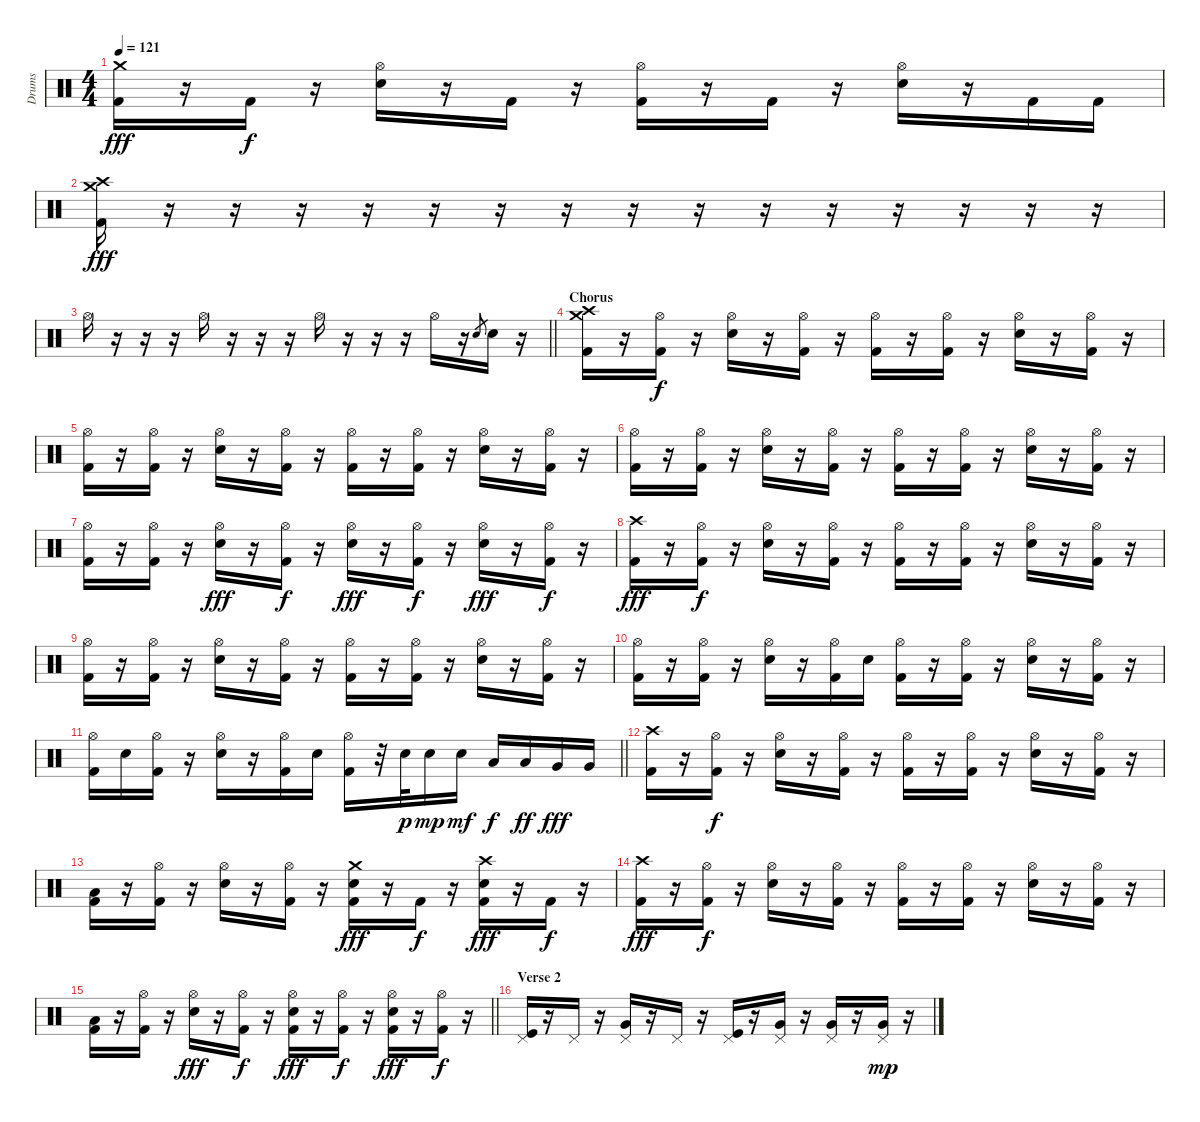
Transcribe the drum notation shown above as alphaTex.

\track ("Drums" "Drums") {instrument percussion}
\staff {score}
\articulation defaults
\ts (4 4)
\tempo 121
\clef neutral
\ks c
("Crash medium (hit)" "Kick (hit) 2").16{dy fff} r.16 "Kick (hit) 2".16{dy f} r.16 ("Hi-Hat (open)" "Electric Snare (hit)").16 r.16 "Kick (hit) 2".16 r.16 ("Hi-Hat (open)" "Kick (hit) 2").16 r.16 "Kick (hit) 2".16 r.16 ("Hi-Hat (open)" "Electric Snare (hit)").16 r.16 "Kick (hit) 2".16 "Kick (hit) 2".16 |
("Crash high (hit)" "Crash medium (hit)" "Kick (hit) 2").16{dy fff} r.16 r.16 r.16 r.16 r.16 r.16 r.16 r.16 r.16 r.16 r.16 r.16 r.16 r.16 r.16 |
\barLineRight lightlight "Hi-Hat (open)".16
r.16 r.16 r.16 "Hi-Hat (open)".16 r.16 r.16 r.16 "Hi-Hat (open)".16 r.16 r.16 r.16 "Hi-Hat (open)".16 r.16 "Electric Snare (hit)".8{gr} "Electric Snare (hit)".16 r.16 |
\section ("" "Chorus")
("Crash high (hit)" "Crash medium (hit)" "Kick (hit) 2").16 r.16 ("Hi-Hat (open)" "Kick (hit) 2").16{dy f} r.16 ("Hi-Hat (open)" "Electric Snare (hit)").16 r.16 ("Hi-Hat (open)" "Kick (hit) 2").16 r.16 ("Hi-Hat (open)" "Kick (hit) 2").16 r.16 ("Hi-Hat (open)" "Kick (hit) 2").16 r.16 ("Hi-Hat (open)" "Electric Snare (hit)").16 r.16 ("Hi-Hat (open)" "Kick (hit) 2").16 r.16 |
("Hi-Hat (open)" "Kick (hit) 2").16 r.16 ("Hi-Hat (open)" "Kick (hit) 2").16 r.16 ("Hi-Hat (open)" "Electric Snare (hit)").16 r.16 ("Hi-Hat (open)" "Kick (hit) 2").16 r.16 ("Hi-Hat (open)" "Kick (hit) 2").16 r.16 ("Hi-Hat (open)" "Kick (hit) 2").16 r.16 ("Hi-Hat (open)" "Electric Snare (hit)").16 r.16 ("Hi-Hat (open)" "Kick (hit) 2").16 r.16 |
("Hi-Hat (open)" "Kick (hit) 2").16 r.16 ("Hi-Hat (open)" "Kick (hit) 2").16 r.16 ("Hi-Hat (open)" "Electric Snare (hit)").16 r.16 ("Hi-Hat (open)" "Kick (hit) 2").16 r.16 ("Hi-Hat (open)" "Kick (hit) 2").16 r.16 ("Hi-Hat (open)" "Kick (hit) 2").16 r.16 ("Hi-Hat (open)" "Electric Snare (hit)").16 r.16 ("Hi-Hat (open)" "Kick (hit) 2").16 r.16 |
("Hi-Hat (open)" "Kick (hit) 2").16 r.16 ("Hi-Hat (open)" "Kick (hit) 2").16 r.16 ("Hi-Hat (open)" "Electric Snare (hit)").16{dy fff} r.16 ("Hi-Hat (open)" "Kick (hit) 2").16{dy f} r.16 ("Hi-Hat (open)" "Electric Snare (hit)").16{dy fff} r.16 ("Hi-Hat (open)" "Kick (hit) 2").16{dy f} r.16 ("Hi-Hat (open)" "Electric Snare (hit)").16{dy fff} r.16 ("Hi-Hat (open)" "Kick (hit) 2").16{dy f} r.16 |
("Crash high (hit)" "Kick (hit) 2").16{dy fff} r.16 ("Hi-Hat (open)" "Kick (hit) 2").16{dy f} r.16 ("Hi-Hat (open)" "Electric Snare (hit)").16 r.16 ("Hi-Hat (open)" "Kick (hit) 2").16 r.16 ("Hi-Hat (open)" "Kick (hit) 2").16 r.16 ("Hi-Hat (open)" "Kick (hit) 2").16 r.16 ("Hi-Hat (open)" "Electric Snare (hit)").16 r.16 ("Hi-Hat (open)" "Kick (hit) 2").16 r.16 |
("Hi-Hat (open)" "Kick (hit) 2").16 r.16 ("Hi-Hat (open)" "Kick (hit) 2").16 r.16 ("Hi-Hat (open)" "Electric Snare (hit)").16 r.16 ("Hi-Hat (open)" "Kick (hit) 2").16 r.16 ("Hi-Hat (open)" "Kick (hit) 2").16 r.16 ("Hi-Hat (open)" "Kick (hit) 2").16 r.16 ("Hi-Hat (open)" "Electric Snare (hit)").16 r.16 ("Hi-Hat (open)" "Kick (hit) 2").16 r.16 |
("Hi-Hat (open)" "Kick (hit) 2").16 r.16 ("Hi-Hat (open)" "Kick (hit) 2").16 r.16 ("Hi-Hat (open)" "Electric Snare (hit)").16 r.16 ("Hi-Hat (open)" "Kick (hit) 2").16 "Electric Snare (hit)".16 ("Hi-Hat (open)" "Kick (hit) 2").16 r.16 ("Hi-Hat (open)" "Kick (hit) 2").16 r.16 ("Hi-Hat (open)" "Electric Snare (hit)").16 r.16 ("Hi-Hat (open)" "Kick (hit) 2").16 r.16 |
\barLineRight lightlight
("Hi-Hat (open)" "Kick (hit) 2").16 "Electric Snare (hit)".16 ("Hi-Hat (open)" "Kick (hit) 2").16 r.16 ("Hi-Hat (open)" "Electric Snare (hit)").16 r.16 ("Hi-Hat (open)" "Kick (hit) 2").16 "Electric Snare (hit)".16 ("Hi-Hat (open)" "Kick (hit) 2").16 r.32 "Electric Snare (hit)".32{dy p} "Electric Snare (hit)".16{dy mp} "Electric Snare (hit)".16{dy mf} "Low Tom (hit)".16{dy f} "Low Tom (hit)".16{dy ff} "Very Low Tom (hit)".16{dy fff} "Very Low Tom (hit)".16 |
("Crash high (hit)" "Kick (hit) 2").16 r.16 ("Hi-Hat (open)" "Kick (hit) 2").16{dy f} r.16 ("Hi-Hat (open)" "Electric Snare (hit)").16 r.16 ("Hi-Hat (open)" "Kick (hit) 2").16 r.16 ("Hi-Hat (open)" "Kick (hit) 2").16 r.16 ("Hi-Hat (open)" "Kick (hit) 2").16 r.16 ("Hi-Hat (open)" "Electric Snare (hit)").16 r.16 ("Hi-Hat (open)" "Kick (hit) 2").16 r.16 |
("Low Tom (hit)" "Kick (hit) 2").16 r.16 ("Hi-Hat (open)" "Kick (hit) 2").16 r.16 ("Hi-Hat (open)" "Electric Snare (hit)").16 r.16 ("Hi-Hat (open)" "Kick (hit) 2").16 r.16 ("Crash medium (hit)" "Electric Snare (hit)" "Kick (hit) 2").16{dy fff} r.16 "Kick (hit) 2".16{dy f} r.16 ("Crash high (hit)" "Electric Snare (hit)" "Kick (hit) 2").16{dy fff} r.16 "Kick (hit) 2".16{dy f} r.16 |
("Crash high (hit)" "Kick (hit) 2").16{dy fff} r.16 ("Hi-Hat (open)" "Kick (hit) 2").16{dy f} r.16 ("Hi-Hat (open)" "Electric Snare (hit)").16 r.16 ("Hi-Hat (open)" "Kick (hit) 2").16 r.16 ("Hi-Hat (open)" "Kick (hit) 2").16 r.16 ("Hi-Hat (open)" "Kick (hit) 2").16 r.16 ("Hi-Hat (open)" "Electric Snare (hit)").16 r.16 ("Hi-Hat (open)" "Kick (hit) 2").16 r.16 |
\barLineRight lightlight
("Low Tom (hit)" "Kick (hit) 2").16 r.16 ("Hi-Hat (open)" "Kick (hit) 2").16 r.16 ("Hi-Hat (open)" "Electric Snare (hit)").16{dy fff} r.16 ("Hi-Hat (open)" "Kick (hit) 2").16{dy f} r.16 ("Hi-Hat (open)" "Electric Snare (hit)" "Kick (hit) 2").16{dy fff} r.16 ("Hi-Hat (open)" "Kick (hit) 2").16{dy f} r.16 ("Hi-Hat (open)" "Electric Snare (hit)" "Kick (hit) 2").16{dy fff} r.16 ("Hi-Hat (open)" "Kick (hit) 2").16{dy f} r.16 |
\section ("" "Verse 2")
("Pedal Hi-Hat (hit)" "Kick (hit)").16{volume 12} r.16 "Pedal Hi-Hat (hit)".16 r.16 ("Pedal Hi-Hat (hit)" "Very Low Tom (hit)").16 r.16 "Pedal Hi-Hat (hit)".16 r.16 ("Pedal Hi-Hat (hit)" "Kick (hit)").16 r.16 ("Pedal Hi-Hat (hit)" "Very Low Tom (hit)").16 r.16 ("Pedal Hi-Hat (hit)" "Very Low Tom (hit)").16 r.16 ("Pedal Hi-Hat (hit)" "Very Low Tom (hit)").16{dy mp} r.16
